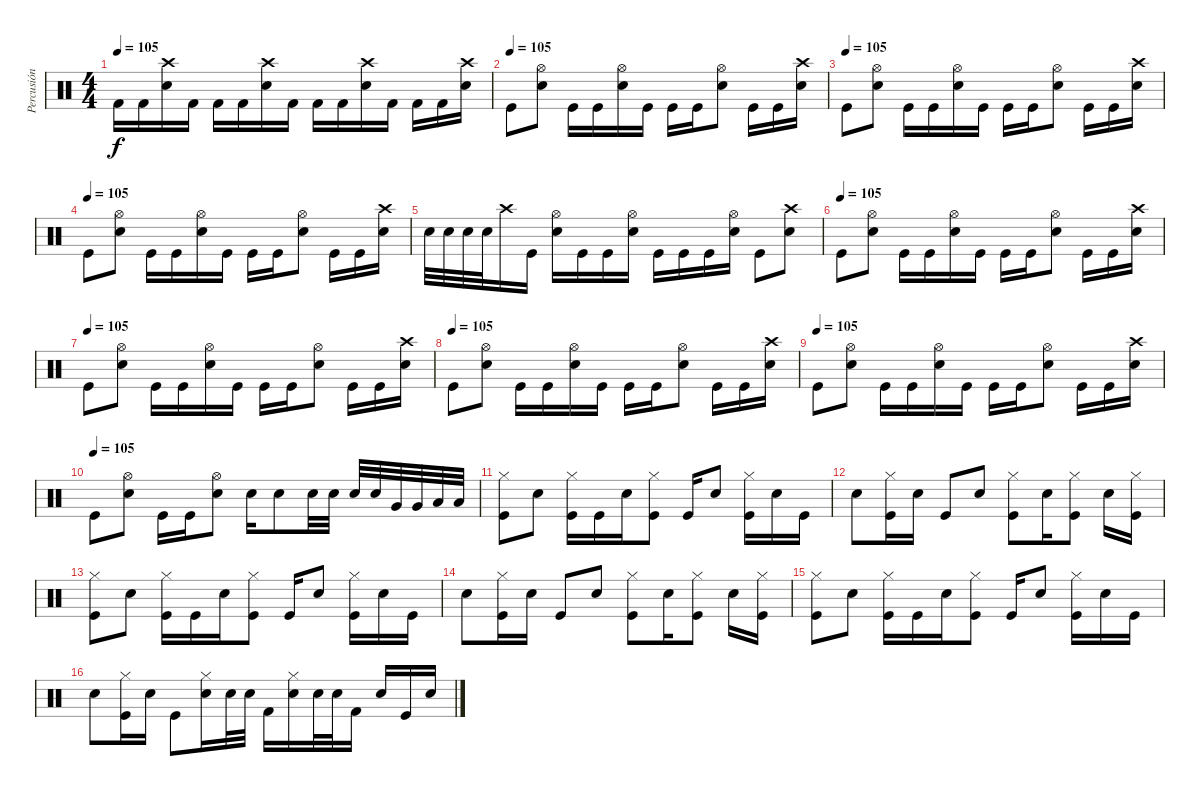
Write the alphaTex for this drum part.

\track ("Percusión" "Percusión") {instrument percussion}
\staff {score}
\articulation defaults
\ts (4 4)
\tempo 105
\clef neutral
\ks c "Kick (hit) 2".16{dy f} "Kick (hit) 2".16
("Electric Snare (hit)" "Crash high (hit)").16 "Kick (hit) 2".16 "Kick (hit) 2".16 "Kick (hit) 2".16 ("Electric Snare (hit)" "Crash high (hit)").16 "Kick (hit) 2".16 "Kick (hit) 2".16 "Kick (hit) 2".16 ("Electric Snare (hit)" "Crash high (hit)").16 "Kick (hit) 2".16 "Kick (hit) 2".16 "Kick (hit) 2".16 ("Electric Snare (hit)" "Crash high (hit)").16 |
\tempo (105)
"Kick (hit)".8 ("Electric Snare (hit)" "Hi-Hat (open)").8 "Kick (hit)".16 "Kick (hit)".16 ("Electric Snare (hit)" "Hi-Hat (open)").16 "Kick (hit)".16 "Kick (hit)".16 "Kick (hit)".16 ("Electric Snare (hit)" "Hi-Hat (open)").8 "Kick (hit)".16 "Kick (hit)".16 ("Electric Snare (hit)" "Crash high (hit)").16 |
\tempo (105)
"Kick (hit)".8 ("Electric Snare (hit)" "Hi-Hat (open)").8 "Kick (hit)".16 "Kick (hit)".16 ("Electric Snare (hit)" "Hi-Hat (open)").16 "Kick (hit)".16 "Kick (hit)".16 "Kick (hit)".16 ("Electric Snare (hit)" "Hi-Hat (open)").8 "Kick (hit)".16 "Kick (hit)".16 ("Electric Snare (hit)" "Crash high (hit)").16 |
\tempo (105)
"Kick (hit)".8 ("Electric Snare (hit)" "Hi-Hat (open)").8 "Kick (hit)".16 "Kick (hit)".16 ("Electric Snare (hit)" "Hi-Hat (open)").16 "Kick (hit)".16 "Kick (hit)".16 "Kick (hit)".16 ("Electric Snare (hit)" "Hi-Hat (open)").8 "Kick (hit)".16 "Kick (hit)".16 ("Electric Snare (hit)" "Crash high (hit)").16 |
"Electric Snare (hit)".32 "Electric Snare (hit)".32 "Electric Snare (hit)".32 "Electric Snare (hit)".32 "Crash high (hit)".16 "Kick (hit)".16 ("Electric Snare (hit)" "Hi-Hat (open)").16 "Kick (hit)".16 "Kick (hit)".16 ("Electric Snare (hit)" "Hi-Hat (open)").16 "Kick (hit)".16 "Kick (hit)".16 "Kick (hit)".16 ("Electric Snare (hit)" "Hi-Hat (open)").16 "Kick (hit)".8 ("Electric Snare (hit)" "Crash high (hit)").8 |
\tempo (105)
"Kick (hit)".8 ("Electric Snare (hit)" "Hi-Hat (open)").8 "Kick (hit)".16 "Kick (hit)".16 ("Electric Snare (hit)" "Hi-Hat (open)").16 "Kick (hit)".16 "Kick (hit)".16 "Kick (hit)".16 ("Electric Snare (hit)" "Hi-Hat (open)").8 "Kick (hit)".16 "Kick (hit)".16 ("Electric Snare (hit)" "Crash high (hit)").16 |
\tempo (105)
"Kick (hit)".8 ("Electric Snare (hit)" "Hi-Hat (open)").8 "Kick (hit)".16 "Kick (hit)".16 ("Electric Snare (hit)" "Hi-Hat (open)").16 "Kick (hit)".16 "Kick (hit)".16 "Kick (hit)".16 ("Electric Snare (hit)" "Hi-Hat (open)").8 "Kick (hit)".16 "Kick (hit)".16 ("Electric Snare (hit)" "Crash high (hit)").16 |
\tempo (105)
"Kick (hit)".8 ("Electric Snare (hit)" "Hi-Hat (open)").8 "Kick (hit)".16 "Kick (hit)".16 ("Electric Snare (hit)" "Hi-Hat (open)").16 "Kick (hit)".16 "Kick (hit)".16 "Kick (hit)".16 ("Electric Snare (hit)" "Hi-Hat (open)").8 "Kick (hit)".16 "Kick (hit)".16 ("Electric Snare (hit)" "Crash high (hit)").16 |
\tempo (105)
"Kick (hit)".8 ("Electric Snare (hit)" "Hi-Hat (open)").8 "Kick (hit)".16 "Kick (hit)".16 ("Electric Snare (hit)" "Hi-Hat (open)").16 "Kick (hit)".16 "Kick (hit)".16 "Kick (hit)".16 ("Electric Snare (hit)" "Hi-Hat (open)").8 "Kick (hit)".16 "Kick (hit)".16 ("Electric Snare (hit)" "Crash high (hit)").16 |
\tempo (105)
"Kick (hit)".8 ("Electric Snare (hit)" "Hi-Hat (open)").8 "Kick (hit)".16 "Kick (hit)".16 ("Electric Snare (hit)" "Hi-Hat (open)").8 "Electric Snare (hit)".16 "Electric Snare (hit)".8 "Electric Snare (hit)".32 "Electric Snare (hit)".32 "Electric Snare (hit)".32 "Electric Snare (hit)".32 "Very Low Tom (hit)".32 "Very Low Tom (hit)".32 "Low Floor Tom (hit)".32 "Low Floor Tom (hit)".32 |
("Kick (hit)" "Hi-Hat (closed)").8 "Electric Snare (hit)".8 ("Kick (hit)" "Hi-Hat (closed)").16 "Kick (hit)".16 "Electric Snare (hit)".16 ("Kick (hit)" "Hi-Hat (closed)").8 "Kick (hit)".16 "Electric Snare (hit)".8 ("Kick (hit)" "Hi-Hat (closed)").16 "Electric Snare (hit)".16 "Kick (hit)".16 |
"Electric Snare (hit)".8 ("Kick (hit)" "Hi-Hat (closed)").16 "Electric Snare (hit)".16 "Kick (hit)".8 "Electric Snare (hit)".8 ("Kick (hit)" "Hi-Hat (closed)").8 "Electric Snare (hit)".16 ("Kick (hit)" "Hi-Hat (closed)").8 "Electric Snare (hit)".16 ("Kick (hit)" "Hi-Hat (closed)").16 |
("Kick (hit)" "Hi-Hat (closed)").8 "Electric Snare (hit)".8 ("Kick (hit)" "Hi-Hat (closed)").16 "Kick (hit)".16 "Electric Snare (hit)".16 ("Kick (hit)" "Hi-Hat (closed)").8 "Kick (hit)".16 "Electric Snare (hit)".8 ("Kick (hit)" "Hi-Hat (closed)").16 "Electric Snare (hit)".16 "Kick (hit)".16 |
"Electric Snare (hit)".8 ("Kick (hit)" "Hi-Hat (closed)").16 "Electric Snare (hit)".16 "Kick (hit)".8 "Electric Snare (hit)".8 ("Kick (hit)" "Hi-Hat (closed)").8 "Electric Snare (hit)".16 ("Kick (hit)" "Hi-Hat (closed)").8 "Electric Snare (hit)".16 ("Kick (hit)" "Hi-Hat (closed)").16 |
("Kick (hit)" "Hi-Hat (closed)").8 "Electric Snare (hit)".8 ("Kick (hit)" "Hi-Hat (closed)").16 "Kick (hit)".16 "Electric Snare (hit)".16 ("Kick (hit)" "Hi-Hat (closed)").8 "Kick (hit)".16 "Electric Snare (hit)".8 ("Kick (hit)" "Hi-Hat (closed)").16 "Electric Snare (hit)".16 "Kick (hit)".16 |
"Electric Snare (hit)".8 ("Kick (hit)" "Hi-Hat (closed)").16 "Electric Snare (hit)".16 "Kick (hit)".8 ("Electric Snare (hit)" "Hi-Hat (closed)").16 "Electric Snare (hit)".32 "Electric Snare (hit)".32 "Kick (hit) 2".16 ("Electric Snare (hit)" "Hi-Hat (closed)").16 "Electric Snare (hit)".32 "Electric Snare (hit)".32 "Kick (hit) 2".16 "Electric Snare (hit)".16 "Kick (hit)".16 "Electric Snare (hit)".16
